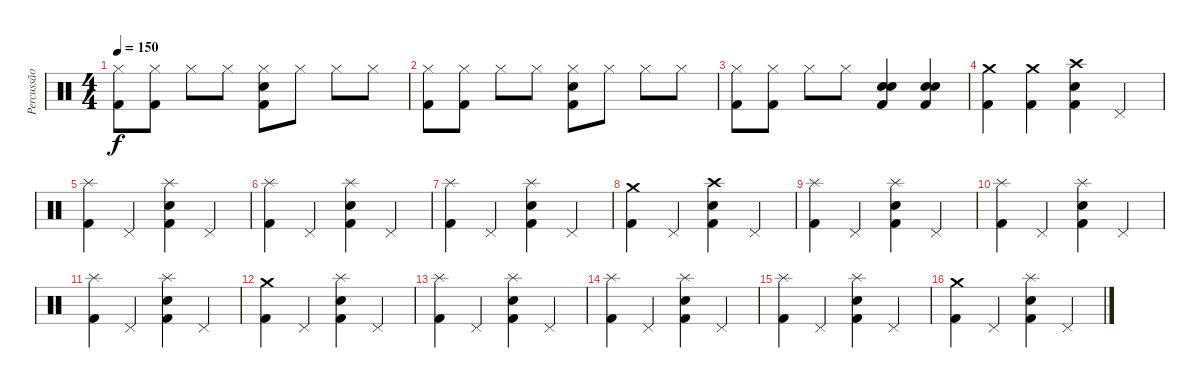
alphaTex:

\track ("Percussão" "Percussão") {instrument percussion}
\staff {score}
\articulation defaults
\ts (4 4)
\tempo 150
\clef neutral
\ks c
("Hi-Hat (closed)" "Kick (hit) 2").8{dy f} ("Hi-Hat (closed)" "Kick (hit) 2").8 "Hi-Hat (closed)".8 "Hi-Hat (closed)".8 ("Hi-Hat (closed)" "Snare (hit) 2" "Kick (hit) 2").8 "Hi-Hat (closed)".8 "Hi-Hat (closed)".8 "Hi-Hat (closed)".8 |
("Hi-Hat (closed)" "Kick (hit) 2").8 ("Hi-Hat (closed)" "Kick (hit) 2").8 "Hi-Hat (closed)".8 "Hi-Hat (closed)".8 ("Hi-Hat (closed)" "Snare (hit) 2" "Kick (hit) 2").8 "Hi-Hat (closed)".8 "Hi-Hat (closed)".8 "Hi-Hat (closed)".8 |
("Hi-Hat (closed)" "Kick (hit) 2").8 ("Hi-Hat (closed)" "Kick (hit) 2").8 "Hi-Hat (closed)".8 "Hi-Hat (closed)".8 ("Snare (hit) 2" "Snare (hit) 2" "Kick (hit) 2").4{bd 120} ("Snare (hit) 2" "Snare (hit) 2" "Kick (hit) 2").4 |
("Crash medium (hit)" "Kick (hit) 2").4 ("Crash medium (hit)" "Kick (hit) 2").4 ("Crash high (hit)" "Snare (hit) 2" "Kick (hit) 2").4 "Pedal Hi-Hat (hit)".4 |
("Splash (hit)" "Kick (hit) 2").4 "Pedal Hi-Hat (hit)".4 ("Splash (hit)" "Snare (hit) 2" "Kick (hit) 2").4 "Pedal Hi-Hat (hit)".4 |
("Splash (hit)" "Kick (hit) 2").4 "Pedal Hi-Hat (hit)".4 ("Splash (hit)" "Snare (hit) 2" "Kick (hit) 2").4 "Pedal Hi-Hat (hit)".4 |
("Splash (hit)" "Kick (hit) 2").4 "Pedal Hi-Hat (hit)".4 ("Splash (hit)" "Snare (hit) 2" "Kick (hit) 2").4 "Pedal Hi-Hat (hit)".4 |
("Crash medium (hit)" "Kick (hit) 2").4 "Pedal Hi-Hat (hit)".4 ("Crash high (hit)" "Snare (hit) 2" "Kick (hit) 2").4 "Pedal Hi-Hat (hit)".4 |
("Splash (hit)" "Kick (hit) 2").4 "Pedal Hi-Hat (hit)".4 ("Splash (hit)" "Snare (hit) 2" "Kick (hit) 2").4 "Pedal Hi-Hat (hit)".4 |
("Splash (hit)" "Kick (hit) 2").4 "Pedal Hi-Hat (hit)".4 ("Splash (hit)" "Snare (hit) 2" "Kick (hit) 2").4 "Pedal Hi-Hat (hit)".4 |
("Splash (hit)" "Kick (hit) 2").4 "Pedal Hi-Hat (hit)".4 ("Splash (hit)" "Snare (hit) 2" "Kick (hit) 2").4 "Pedal Hi-Hat (hit)".4 |
("Crash medium (hit)" "Kick (hit) 2").4 "Pedal Hi-Hat (hit)".4 ("Splash (hit)" "Snare (hit) 2" "Kick (hit) 2").4 "Pedal Hi-Hat (hit)".4 |
("Splash (hit)" "Kick (hit) 2").4 "Pedal Hi-Hat (hit)".4 ("Splash (hit)" "Snare (hit) 2" "Kick (hit) 2").4 "Pedal Hi-Hat (hit)".4 |
("Splash (hit)" "Kick (hit) 2").4 "Pedal Hi-Hat (hit)".4 ("Splash (hit)" "Snare (hit) 2" "Kick (hit) 2").4 "Pedal Hi-Hat (hit)".4 |
("Splash (hit)" "Kick (hit) 2").4 "Pedal Hi-Hat (hit)".4 ("Splash (hit)" "Snare (hit) 2" "Kick (hit) 2").4 "Pedal Hi-Hat (hit)".4 |
("Crash medium (hit)" "Kick (hit) 2").4 "Pedal Hi-Hat (hit)".4 ("Splash (hit)" "Snare (hit) 2" "Kick (hit) 2").4 "Pedal Hi-Hat (hit)".4
